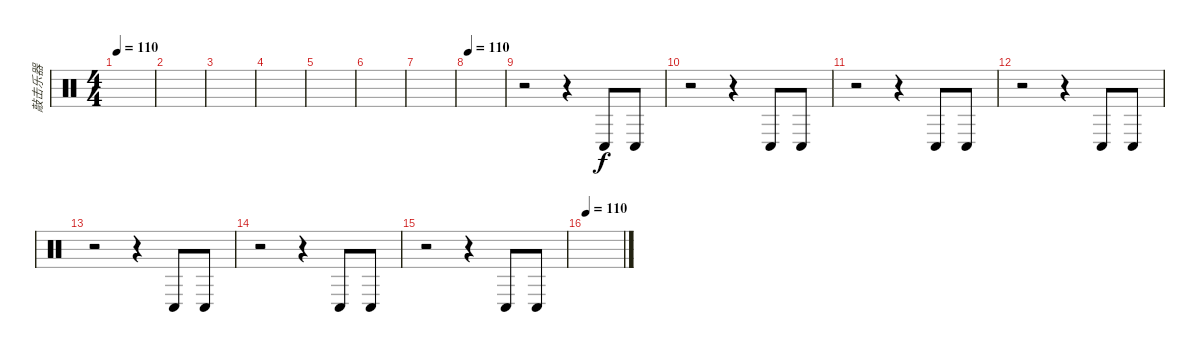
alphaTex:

\track ("敲击乐器" "敲击乐器") {instrument percussion}
\staff {score}
\articulation defaults
\ts (4 4)
\tempo 110
\clef neutral
\ks c
|
|
|
|
|
|
|
\tempo 110
|
r.2{volume 9} r.4 "Conga low (hit)".8 "Conga low (hit)".8 |
r.2 r.4 "Conga low (hit)".8 "Conga low (hit)".8 |
r.2 r.4 "Conga low (hit)".8 "Conga low (hit)".8 |
r.2 r.4 "Conga low (hit)".8 "Conga low (hit)".8 |
r.2 r.4 "Conga low (hit)".8 "Conga low (hit)".8 |
r.2 r.4 "Conga low (hit)".8 "Conga low (hit)".8 |
r.2 r.4 "Conga low (hit)".8 "Conga low (hit)".8 |
\tempo 110
